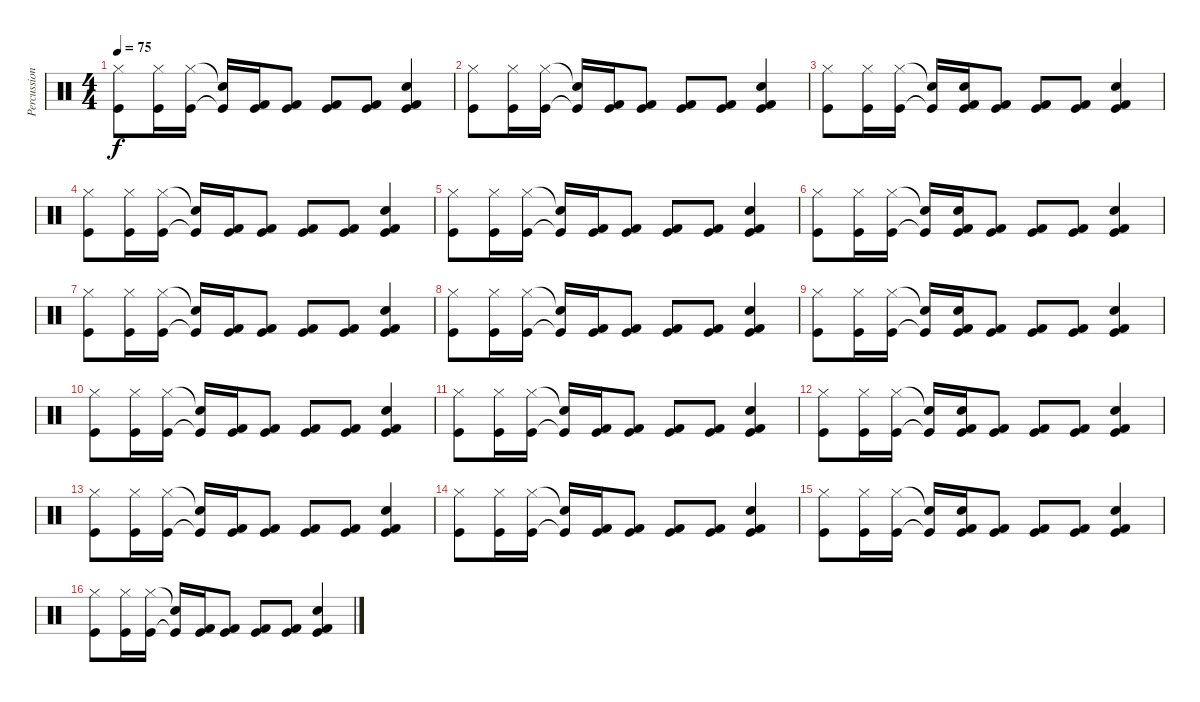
\track ("Percussion" "Percussion") {instrument percussion}
\staff {score}
\articulation defaults
\ts (4 4)
\tempo 75
\clef neutral
\ks c
("Kick (hit)" "Hi-Hat (closed)").8{dy f} ("Kick (hit)" "Hi-Hat (closed)").16 ("Kick (hit)" "Hi-Hat (closed)").16 ("Kick (hit)"{t} "Snare (hit) 2"{t}).16 ("Kick (hit)" "Kick (hit) 2").16 ("Kick (hit)" "Kick (hit) 2").8 ("Kick (hit)" "Kick (hit) 2").8 ("Kick (hit)" "Kick (hit) 2").8 ("Kick (hit)" "Kick (hit) 2" "Snare (hit) 2").4 |
("Kick (hit)" "Hi-Hat (closed)").8 ("Kick (hit)" "Hi-Hat (closed)").16 ("Kick (hit)" "Hi-Hat (closed)").16 ("Kick (hit)"{t} "Snare (hit) 2"{t}).16 ("Kick (hit)" "Kick (hit) 2").16 ("Kick (hit)" "Kick (hit) 2").8 ("Kick (hit)" "Kick (hit) 2").8 ("Kick (hit)" "Kick (hit) 2").8 ("Kick (hit)" "Kick (hit) 2" "Snare (hit) 2").4 |
("Kick (hit)" "Hi-Hat (closed)").8 ("Kick (hit)" "Hi-Hat (closed)").16 ("Kick (hit)" "Hi-Hat (closed)").16 ("Kick (hit)"{t} "Snare (hit) 2"{t}).16 ("Kick (hit)" "Kick (hit) 2" "Snare (hit) 2").16 ("Kick (hit)" "Kick (hit) 2").8 ("Kick (hit)" "Kick (hit) 2").8 ("Kick (hit)" "Kick (hit) 2").8 ("Kick (hit)" "Kick (hit) 2" "Snare (hit) 2").4 |
("Kick (hit)" "Hi-Hat (closed)").8 ("Kick (hit)" "Hi-Hat (closed)").16 ("Kick (hit)" "Hi-Hat (closed)").16 ("Kick (hit)"{t} "Snare (hit) 2"{t}).16 ("Kick (hit)" "Kick (hit) 2").16 ("Kick (hit)" "Kick (hit) 2").8 ("Kick (hit)" "Kick (hit) 2").8 ("Kick (hit)" "Kick (hit) 2").8 ("Kick (hit)" "Kick (hit) 2" "Snare (hit) 2").4 |
("Kick (hit)" "Hi-Hat (closed)").8 ("Kick (hit)" "Hi-Hat (closed)").16 ("Kick (hit)" "Hi-Hat (closed)").16 ("Kick (hit)"{t} "Snare (hit) 2"{t}).16 ("Kick (hit)" "Kick (hit) 2").16 ("Kick (hit)" "Kick (hit) 2").8 ("Kick (hit)" "Kick (hit) 2").8 ("Kick (hit)" "Kick (hit) 2").8 ("Kick (hit)" "Kick (hit) 2" "Snare (hit) 2").4 |
("Kick (hit)" "Hi-Hat (closed)").8 ("Kick (hit)" "Hi-Hat (closed)").16 ("Kick (hit)" "Hi-Hat (closed)").16 ("Kick (hit)"{t} "Snare (hit) 2"{t}).16 ("Kick (hit)" "Kick (hit) 2" "Snare (hit) 2").16 ("Kick (hit)" "Kick (hit) 2").8 ("Kick (hit)" "Kick (hit) 2").8 ("Kick (hit)" "Kick (hit) 2").8 ("Kick (hit)" "Kick (hit) 2" "Snare (hit) 2").4 |
("Kick (hit)" "Hi-Hat (closed)").8 ("Kick (hit)" "Hi-Hat (closed)").16 ("Kick (hit)" "Hi-Hat (closed)").16 ("Kick (hit)"{t} "Snare (hit) 2"{t}).16 ("Kick (hit)" "Kick (hit) 2").16 ("Kick (hit)" "Kick (hit) 2").8 ("Kick (hit)" "Kick (hit) 2").8 ("Kick (hit)" "Kick (hit) 2").8 ("Kick (hit)" "Kick (hit) 2" "Snare (hit) 2").4 |
("Kick (hit)" "Hi-Hat (closed)").8 ("Kick (hit)" "Hi-Hat (closed)").16 ("Kick (hit)" "Hi-Hat (closed)").16 ("Kick (hit)"{t} "Snare (hit) 2"{t}).16 ("Kick (hit)" "Kick (hit) 2").16 ("Kick (hit)" "Kick (hit) 2").8 ("Kick (hit)" "Kick (hit) 2").8 ("Kick (hit)" "Kick (hit) 2").8 ("Kick (hit)" "Kick (hit) 2" "Snare (hit) 2").4 |
("Kick (hit)" "Hi-Hat (closed)").8 ("Kick (hit)" "Hi-Hat (closed)").16 ("Kick (hit)" "Hi-Hat (closed)").16 ("Kick (hit)"{t} "Snare (hit) 2"{t}).16 ("Kick (hit)" "Kick (hit) 2" "Snare (hit) 2").16 ("Kick (hit)" "Kick (hit) 2").8 ("Kick (hit)" "Kick (hit) 2").8 ("Kick (hit)" "Kick (hit) 2").8 ("Kick (hit)" "Kick (hit) 2" "Snare (hit) 2").4 |
("Kick (hit)" "Hi-Hat (closed)").8 ("Kick (hit)" "Hi-Hat (closed)").16 ("Kick (hit)" "Hi-Hat (closed)").16 ("Kick (hit)"{t} "Snare (hit) 2"{t}).16 ("Kick (hit)" "Kick (hit) 2").16 ("Kick (hit)" "Kick (hit) 2").8 ("Kick (hit)" "Kick (hit) 2").8 ("Kick (hit)" "Kick (hit) 2").8 ("Kick (hit)" "Kick (hit) 2" "Snare (hit) 2").4 |
("Kick (hit)" "Hi-Hat (closed)").8 ("Kick (hit)" "Hi-Hat (closed)").16 ("Kick (hit)" "Hi-Hat (closed)").16 ("Kick (hit)"{t} "Snare (hit) 2"{t}).16 ("Kick (hit)" "Kick (hit) 2").16 ("Kick (hit)" "Kick (hit) 2").8 ("Kick (hit)" "Kick (hit) 2").8 ("Kick (hit)" "Kick (hit) 2").8 ("Kick (hit)" "Kick (hit) 2" "Snare (hit) 2").4 |
("Kick (hit)" "Hi-Hat (closed)").8 ("Kick (hit)" "Hi-Hat (closed)").16 ("Kick (hit)" "Hi-Hat (closed)").16 ("Kick (hit)"{t} "Snare (hit) 2"{t}).16 ("Kick (hit)" "Kick (hit) 2" "Snare (hit) 2").16 ("Kick (hit)" "Kick (hit) 2").8 ("Kick (hit)" "Kick (hit) 2").8 ("Kick (hit)" "Kick (hit) 2").8 ("Kick (hit)" "Kick (hit) 2" "Snare (hit) 2").4 |
("Kick (hit)" "Hi-Hat (closed)").8 ("Kick (hit)" "Hi-Hat (closed)").16 ("Kick (hit)" "Hi-Hat (closed)").16 ("Kick (hit)"{t} "Snare (hit) 2"{t}).16 ("Kick (hit)" "Kick (hit) 2").16 ("Kick (hit)" "Kick (hit) 2").8 ("Kick (hit)" "Kick (hit) 2").8 ("Kick (hit)" "Kick (hit) 2").8 ("Kick (hit)" "Kick (hit) 2" "Snare (hit) 2").4 |
("Kick (hit)" "Hi-Hat (closed)").8 ("Kick (hit)" "Hi-Hat (closed)").16 ("Kick (hit)" "Hi-Hat (closed)").16 ("Kick (hit)"{t} "Snare (hit) 2"{t}).16 ("Kick (hit)" "Kick (hit) 2").16 ("Kick (hit)" "Kick (hit) 2").8 ("Kick (hit)" "Kick (hit) 2").8 ("Kick (hit)" "Kick (hit) 2").8 ("Kick (hit)" "Kick (hit) 2" "Snare (hit) 2").4 |
("Kick (hit)" "Hi-Hat (closed)").8 ("Kick (hit)" "Hi-Hat (closed)").16 ("Kick (hit)" "Hi-Hat (closed)").16 ("Kick (hit)"{t} "Snare (hit) 2"{t}).16 ("Kick (hit)" "Kick (hit) 2" "Snare (hit) 2").16 ("Kick (hit)" "Kick (hit) 2").8 ("Kick (hit)" "Kick (hit) 2").8 ("Kick (hit)" "Kick (hit) 2").8 ("Kick (hit)" "Kick (hit) 2" "Snare (hit) 2").4 |
("Kick (hit)" "Hi-Hat (closed)").8 ("Kick (hit)" "Hi-Hat (closed)").16 ("Kick (hit)" "Hi-Hat (closed)").16 ("Kick (hit)"{t} "Snare (hit) 2"{t}).16 ("Kick (hit)" "Kick (hit) 2").16 ("Kick (hit)" "Kick (hit) 2").8 ("Kick (hit)" "Kick (hit) 2").8 ("Kick (hit)" "Kick (hit) 2").8 ("Kick (hit)" "Kick (hit) 2" "Snare (hit) 2").4
